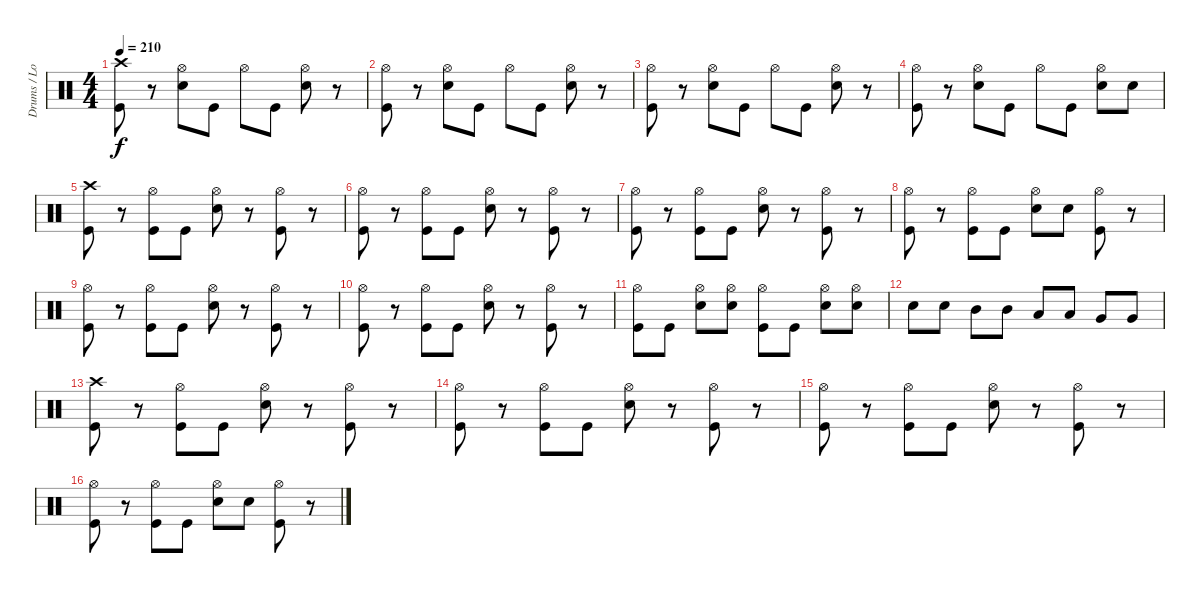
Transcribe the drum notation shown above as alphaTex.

\track ("Drums / Louie Clemente" "Drums / Lo") {instrument percussion}
\staff {score}
\articulation defaults
\ts (4 4)
\tempo 210
\clef neutral
\ks c
("Crash high (hit)" "Kick (hit)").8{dy f} r.8 ("Hi-Hat (open)" "Snare (hit) 2").8 "Kick (hit)".8 "Hi-Hat (open)".8 "Kick (hit)".8 ("Hi-Hat (open)" "Snare (hit) 2").8 r.8 |
("Hi-Hat (open)" "Kick (hit)").8 r.8 ("Hi-Hat (open)" "Snare (hit) 2").8 "Kick (hit)".8 "Hi-Hat (open)".8 "Kick (hit)".8 ("Hi-Hat (open)" "Snare (hit) 2").8 r.8 |
("Hi-Hat (open)" "Kick (hit)").8 r.8 ("Hi-Hat (open)" "Snare (hit) 2").8 "Kick (hit)".8 "Hi-Hat (open)".8 "Kick (hit)".8 ("Hi-Hat (open)" "Snare (hit) 2").8 r.8 |
("Hi-Hat (open)" "Kick (hit)").8 r.8 ("Hi-Hat (open)" "Snare (hit) 2").8 "Kick (hit)".8 "Hi-Hat (open)".8 "Kick (hit)".8 ("Hi-Hat (open)" "Snare (hit) 2").8 "Snare (hit) 2".8 |
("Crash high (hit)" "Kick (hit)").8 r.8 ("Hi-Hat (open)" "Kick (hit)").8 "Kick (hit)".8 ("Hi-Hat (open)" "Snare (hit) 2").8 r.8 ("Hi-Hat (open)" "Kick (hit)").8 r.8 |
("Hi-Hat (open)" "Kick (hit)").8 r.8 ("Hi-Hat (open)" "Kick (hit)").8 "Kick (hit)".8 ("Hi-Hat (open)" "Snare (hit) 2").8 r.8 ("Hi-Hat (open)" "Kick (hit)").8 r.8 |
("Hi-Hat (open)" "Kick (hit)").8 r.8 ("Hi-Hat (open)" "Kick (hit)").8 "Kick (hit)".8 ("Hi-Hat (open)" "Snare (hit) 2").8 r.8 ("Hi-Hat (open)" "Kick (hit)").8 r.8 |
("Hi-Hat (open)" "Kick (hit)").8 r.8 ("Hi-Hat (open)" "Kick (hit)").8 "Kick (hit)".8 ("Hi-Hat (open)" "Snare (hit) 2").8 "Snare (hit) 2".8 ("Hi-Hat (open)" "Kick (hit)").8 r.8 |
("Hi-Hat (open)" "Kick (hit)").8 r.8 ("Hi-Hat (open)" "Kick (hit)").8 "Kick (hit)".8 ("Hi-Hat (open)" "Snare (hit) 2").8 r.8 ("Hi-Hat (open)" "Kick (hit)").8 r.8 |
("Hi-Hat (open)" "Kick (hit)").8 r.8 ("Hi-Hat (open)" "Kick (hit)").8 "Kick (hit)".8 ("Hi-Hat (open)" "Snare (hit) 2").8 r.8 ("Hi-Hat (open)" "Kick (hit)").8 r.8 |
("Hi-Hat (open)" "Kick (hit)").8 "Kick (hit)".8 ("Hi-Hat (open)" "Snare (hit) 2").8 ("Hi-Hat (open)" "Snare (hit) 2").8 ("Hi-Hat (open)" "Kick (hit)").8 "Kick (hit)".8 ("Hi-Hat (open)" "Snare (hit) 2").8 ("Hi-Hat (open)" "Snare (hit) 2").8 |
"Snare (hit) 2".8 "Snare (hit) 2".8 "Mid Tom (hit)".8 "Mid Tom (hit)".8 "Low Tom (hit)".8 "Low Tom (hit)".8 "Very Low Tom (hit)".8 "Very Low Tom (hit)".8 |
("Crash high (hit)" "Kick (hit)").8 r.8 ("Hi-Hat (open)" "Kick (hit)").8 "Kick (hit)".8 ("Hi-Hat (open)" "Snare (hit) 2").8 r.8 ("Hi-Hat (open)" "Kick (hit)").8 r.8 |
("Hi-Hat (open)" "Kick (hit)").8 r.8 ("Hi-Hat (open)" "Kick (hit)").8 "Kick (hit)".8 ("Hi-Hat (open)" "Snare (hit) 2").8 r.8 ("Hi-Hat (open)" "Kick (hit)").8 r.8 |
("Hi-Hat (open)" "Kick (hit)").8 r.8 ("Hi-Hat (open)" "Kick (hit)").8 "Kick (hit)".8 ("Hi-Hat (open)" "Snare (hit) 2").8 r.8 ("Hi-Hat (open)" "Kick (hit)").8 r.8 |
("Hi-Hat (open)" "Kick (hit)").8 r.8 ("Hi-Hat (open)" "Kick (hit)").8 "Kick (hit)".8 ("Hi-Hat (open)" "Snare (hit) 2").8 "Snare (hit) 2".8 ("Hi-Hat (open)" "Kick (hit)").8 r.8
